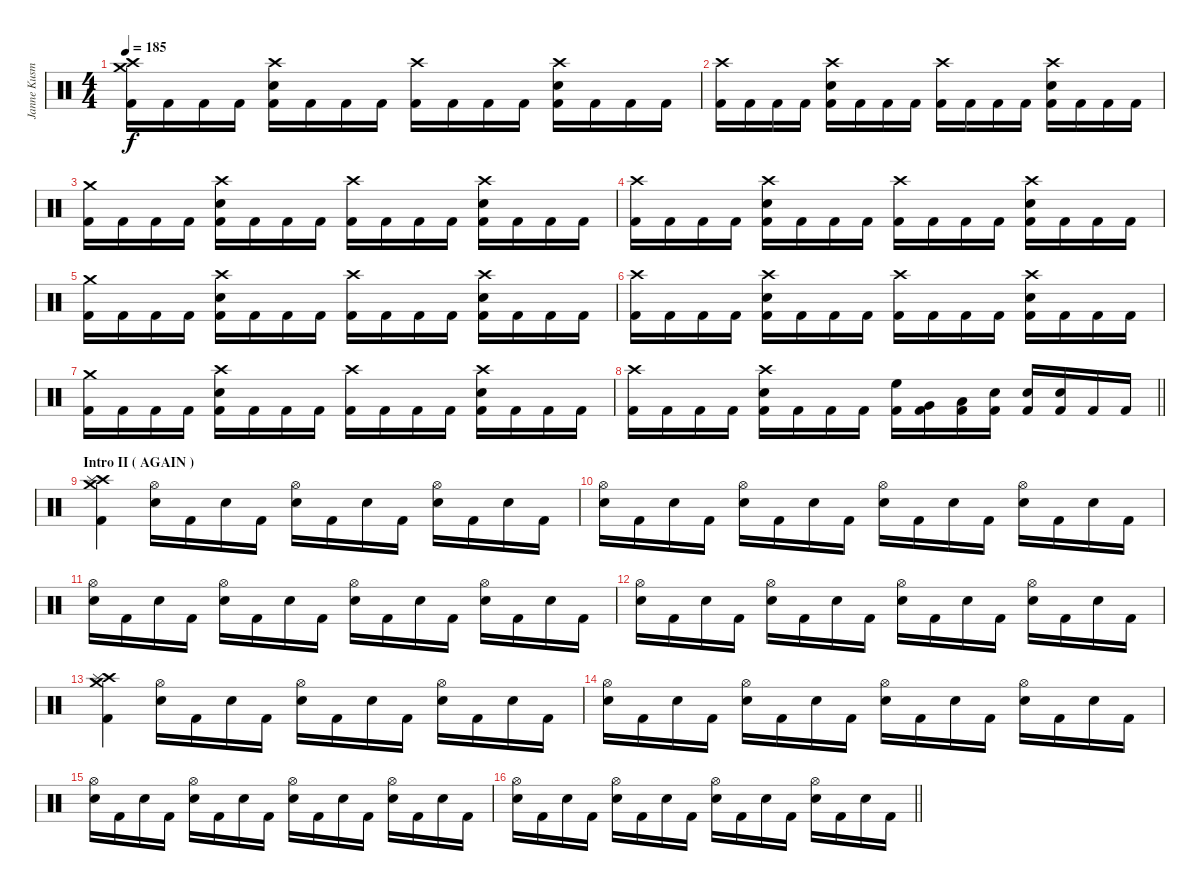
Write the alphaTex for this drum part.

\track ("Janne Kusmin" "Janne Kusm") {instrument percussion}
\staff {score}
\articulation defaults
\ts (4 4)
\tempo 185
\clef neutral
\ks c
("Crash medium (hit)" "Crash high (hit)" "Kick (hit) 2").16{dy f} "Kick (hit) 2".16 "Kick (hit) 2".16 "Kick (hit) 2".16 ("Crash high (hit)" "Electric Snare (hit)" "Kick (hit) 2").16 "Kick (hit) 2".16 "Kick (hit) 2".16 "Kick (hit) 2".16 ("Crash high (hit)" "Kick (hit) 2").16 "Kick (hit) 2".16 "Kick (hit) 2".16 "Kick (hit) 2".16 ("Crash high (hit)" "Electric Snare (hit)" "Kick (hit) 2").16 "Kick (hit) 2".16 "Kick (hit) 2".16 "Kick (hit) 2".16 |
("Crash high (hit)" "Kick (hit) 2").16 "Kick (hit) 2".16 "Kick (hit) 2".16 "Kick (hit) 2".16 ("Crash high (hit)" "Electric Snare (hit)" "Kick (hit) 2").16 "Kick (hit) 2".16 "Kick (hit) 2".16 "Kick (hit) 2".16 ("Crash high (hit)" "Kick (hit) 2").16 "Kick (hit) 2".16 "Kick (hit) 2".16 "Kick (hit) 2".16 ("Crash high (hit)" "Electric Snare (hit)" "Kick (hit) 2").16 "Kick (hit) 2".16 "Kick (hit) 2".16 "Kick (hit) 2".16 |
("Crash medium (hit)" "Kick (hit) 2").16 "Kick (hit) 2".16 "Kick (hit) 2".16 "Kick (hit) 2".16 ("Crash high (hit)" "Electric Snare (hit)" "Kick (hit) 2").16 "Kick (hit) 2".16 "Kick (hit) 2".16 "Kick (hit) 2".16 ("Crash high (hit)" "Kick (hit) 2").16 "Kick (hit) 2".16 "Kick (hit) 2".16 "Kick (hit) 2".16 ("Crash high (hit)" "Electric Snare (hit)" "Kick (hit) 2").16 "Kick (hit) 2".16 "Kick (hit) 2".16 "Kick (hit) 2".16 |
("Crash high (hit)" "Kick (hit) 2").16 "Kick (hit) 2".16 "Kick (hit) 2".16 "Kick (hit) 2".16 ("Crash high (hit)" "Electric Snare (hit)" "Kick (hit) 2").16 "Kick (hit) 2".16 "Kick (hit) 2".16 "Kick (hit) 2".16 ("Crash high (hit)" "Kick (hit) 2").16 "Kick (hit) 2".16 "Kick (hit) 2".16 "Kick (hit) 2".16 ("Crash high (hit)" "Electric Snare (hit)" "Kick (hit) 2").16 "Kick (hit) 2".16 "Kick (hit) 2".16 "Kick (hit) 2".16 |
("Crash medium (hit)" "Kick (hit) 2").16 "Kick (hit) 2".16 "Kick (hit) 2".16 "Kick (hit) 2".16 ("Crash high (hit)" "Electric Snare (hit)" "Kick (hit) 2").16 "Kick (hit) 2".16 "Kick (hit) 2".16 "Kick (hit) 2".16 ("Crash high (hit)" "Kick (hit) 2").16 "Kick (hit) 2".16 "Kick (hit) 2".16 "Kick (hit) 2".16 ("Crash high (hit)" "Electric Snare (hit)" "Kick (hit) 2").16 "Kick (hit) 2".16 "Kick (hit) 2".16 "Kick (hit) 2".16 |
("Crash high (hit)" "Kick (hit) 2").16 "Kick (hit) 2".16 "Kick (hit) 2".16 "Kick (hit) 2".16 ("Crash high (hit)" "Electric Snare (hit)" "Kick (hit) 2").16 "Kick (hit) 2".16 "Kick (hit) 2".16 "Kick (hit) 2".16 ("Crash high (hit)" "Kick (hit) 2").16 "Kick (hit) 2".16 "Kick (hit) 2".16 "Kick (hit) 2".16 ("Crash high (hit)" "Electric Snare (hit)" "Kick (hit) 2").16 "Kick (hit) 2".16 "Kick (hit) 2".16 "Kick (hit) 2".16 |
("Crash medium (hit)" "Kick (hit) 2").16 "Kick (hit) 2".16 "Kick (hit) 2".16 "Kick (hit) 2".16 ("Crash high (hit)" "Electric Snare (hit)" "Kick (hit) 2").16 "Kick (hit) 2".16 "Kick (hit) 2".16 "Kick (hit) 2".16 ("Crash high (hit)" "Kick (hit) 2").16 "Kick (hit) 2".16 "Kick (hit) 2".16 "Kick (hit) 2".16 ("Crash high (hit)" "Electric Snare (hit)" "Kick (hit) 2").16 "Kick (hit) 2".16 "Kick (hit) 2".16 "Kick (hit) 2".16 |
\barLineRight lightlight
("Crash high (hit)" "Kick (hit) 2").16 "Kick (hit) 2".16 "Kick (hit) 2".16 "Kick (hit) 2".16 ("Crash high (hit)" "Electric Snare (hit)" "Kick (hit) 2").16 "Kick (hit) 2".16 "Kick (hit) 2".16 "Kick (hit) 2".16 ("High Floor Tom (hit)" "Kick (hit) 2").16 ("Very Low Tom (hit)" "Kick (hit) 2").16 ("Low Floor Tom (hit)" "Kick (hit) 2").16 ("Electric Snare (hit)" "Kick (hit) 2").16 ("Electric Snare (hit)" "Kick (hit) 2").16 ("Electric Snare (hit)" "Kick (hit) 2").16 "Kick (hit) 2".16 "Kick (hit) 2".16 |
\section ("" "Intro II ( AGAIN )")
("Crash medium (hit)" "Crash high (hit)" "Splash (hit)" "Kick (hit) 2").4 ("Hi-Hat (open)" "Electric Snare (hit)").16 "Kick (hit) 2".16 "Electric Snare (hit)".16 "Kick (hit) 2".16 ("Hi-Hat (open)" "Electric Snare (hit)").16 "Kick (hit) 2".16 "Electric Snare (hit)".16 "Kick (hit) 2".16 ("Hi-Hat (open)" "Electric Snare (hit)").16 "Kick (hit) 2".16 "Electric Snare (hit)".16 "Kick (hit) 2".16 |
("Hi-Hat (open)" "Electric Snare (hit)").16 "Kick (hit) 2".16 "Electric Snare (hit)".16 "Kick (hit) 2".16 ("Hi-Hat (open)" "Electric Snare (hit)").16 "Kick (hit) 2".16 "Electric Snare (hit)".16 "Kick (hit) 2".16 ("Hi-Hat (open)" "Electric Snare (hit)").16 "Kick (hit) 2".16 "Electric Snare (hit)".16 "Kick (hit) 2".16 ("Hi-Hat (open)" "Electric Snare (hit)").16 "Kick (hit) 2".16 "Electric Snare (hit)".16 "Kick (hit) 2".16 |
("Hi-Hat (open)" "Electric Snare (hit)").16 "Kick (hit) 2".16 "Electric Snare (hit)".16 "Kick (hit) 2".16 ("Hi-Hat (open)" "Electric Snare (hit)").16 "Kick (hit) 2".16 "Electric Snare (hit)".16 "Kick (hit) 2".16 ("Hi-Hat (open)" "Electric Snare (hit)").16 "Kick (hit) 2".16 "Electric Snare (hit)".16 "Kick (hit) 2".16 ("Hi-Hat (open)" "Electric Snare (hit)").16 "Kick (hit) 2".16 "Electric Snare (hit)".16 "Kick (hit) 2".16 |
("Hi-Hat (open)" "Electric Snare (hit)").16 "Kick (hit) 2".16 "Electric Snare (hit)".16 "Kick (hit) 2".16 ("Hi-Hat (open)" "Electric Snare (hit)").16 "Kick (hit) 2".16 "Electric Snare (hit)".16 "Kick (hit) 2".16 ("Hi-Hat (open)" "Electric Snare (hit)").16 "Kick (hit) 2".16 "Electric Snare (hit)".16 "Kick (hit) 2".16 ("Hi-Hat (open)" "Electric Snare (hit)").16 "Kick (hit) 2".16 "Electric Snare (hit)".16 "Kick (hit) 2".16 |
("Crash medium (hit)" "Crash high (hit)" "Splash (hit)" "Kick (hit) 2").4 ("Hi-Hat (open)" "Electric Snare (hit)").16 "Kick (hit) 2".16 "Electric Snare (hit)".16 "Kick (hit) 2".16 ("Hi-Hat (open)" "Electric Snare (hit)").16 "Kick (hit) 2".16 "Electric Snare (hit)".16 "Kick (hit) 2".16 ("Hi-Hat (open)" "Electric Snare (hit)").16 "Kick (hit) 2".16 "Electric Snare (hit)".16 "Kick (hit) 2".16 |
("Hi-Hat (open)" "Electric Snare (hit)").16 "Kick (hit) 2".16 "Electric Snare (hit)".16 "Kick (hit) 2".16 ("Hi-Hat (open)" "Electric Snare (hit)").16 "Kick (hit) 2".16 "Electric Snare (hit)".16 "Kick (hit) 2".16 ("Hi-Hat (open)" "Electric Snare (hit)").16 "Kick (hit) 2".16 "Electric Snare (hit)".16 "Kick (hit) 2".16 ("Hi-Hat (open)" "Electric Snare (hit)").16 "Kick (hit) 2".16 "Electric Snare (hit)".16 "Kick (hit) 2".16 |
("Hi-Hat (open)" "Electric Snare (hit)").16 "Kick (hit) 2".16 "Electric Snare (hit)".16 "Kick (hit) 2".16 ("Hi-Hat (open)" "Electric Snare (hit)").16 "Kick (hit) 2".16 "Electric Snare (hit)".16 "Kick (hit) 2".16 ("Hi-Hat (open)" "Electric Snare (hit)").16 "Kick (hit) 2".16 "Electric Snare (hit)".16 "Kick (hit) 2".16 ("Hi-Hat (open)" "Electric Snare (hit)").16 "Kick (hit) 2".16 "Electric Snare (hit)".16 "Kick (hit) 2".16 |
\barLineRight lightlight
("Hi-Hat (open)" "Electric Snare (hit)").16 "Kick (hit) 2".16 "Electric Snare (hit)".16 "Kick (hit) 2".16 ("Hi-Hat (open)" "Electric Snare (hit)").16 "Kick (hit) 2".16 "Electric Snare (hit)".16 "Kick (hit) 2".16 ("Hi-Hat (open)" "Electric Snare (hit)").16 "Kick (hit) 2".16 "Electric Snare (hit)".16 "Kick (hit) 2".16 ("Hi-Hat (open)" "Electric Snare (hit)").16 "Kick (hit) 2".16 "Electric Snare (hit)".16 "Kick (hit) 2".16
